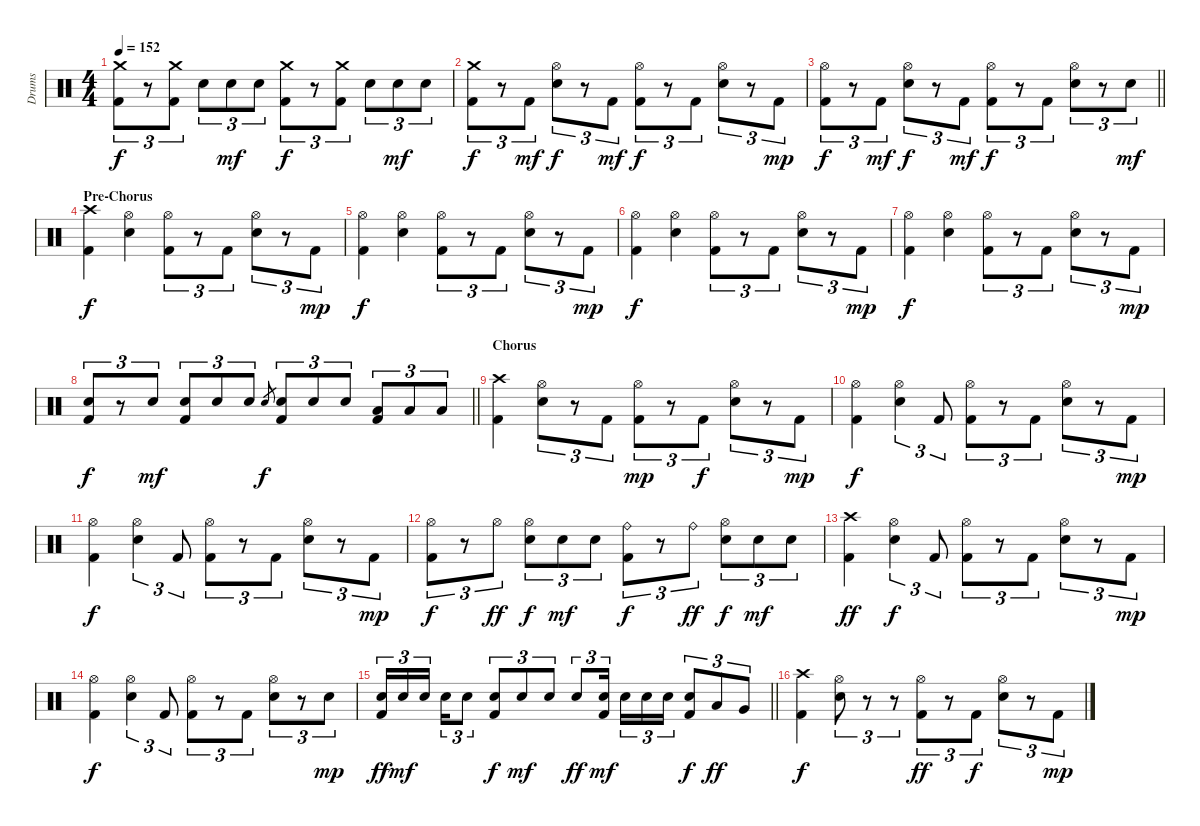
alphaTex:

\track ("Drums" "Drums") {instrument percussion}
\staff {score}
\articulation defaults
\ts (4 4)
\tempo 152
\clef neutral
\ks c
("Crash medium (hit)" "Kick (hit) 2").8{tu (3 2) dy f} r.8{tu (3 2)} ("Crash medium (hit)" "Kick (hit) 2").8{tu (3 2)} "Snare (hit) 2".8{tu (3 2)} "Snare (hit) 2".8{tu (3 2) dy mf} "Snare (hit) 2".8{tu (3 2)} ("Crash medium (hit)" "Kick (hit) 2").8{tu (3 2) dy f} r.8{tu (3 2)} ("Crash medium (hit)" "Kick (hit) 2").8{tu (3 2)} "Snare (hit) 2".8{tu (3 2)} "Snare (hit) 2".8{tu (3 2) dy mf} "Snare (hit) 2".8{tu (3 2)} |
("Crash medium (hit)" "Kick (hit) 2").8{tu (3 2) dy f} r.8{tu (3 2)} "Kick (hit) 2".8{tu (3 2) dy mf} ("Hi-Hat (open)" "Snare (hit) 2").8{tu (3 2) dy f} r.8{tu (3 2)} "Kick (hit) 2".8{tu (3 2) dy mf} ("Hi-Hat (open)" "Kick (hit) 2").8{tu (3 2) dy f} r.8{tu (3 2)} "Kick (hit) 2".8{tu (3 2)} ("Hi-Hat (open)" "Snare (hit) 2").8{tu (3 2)} r.8{tu (3 2)} "Kick (hit) 2".8{tu (3 2) dy mp} |
\barLineRight lightlight
("Hi-Hat (open)" "Kick (hit) 2").8{tu (3 2) dy f} r.8{tu (3 2)} "Kick (hit) 2".8{tu (3 2) dy mf} ("Hi-Hat (open)" "Snare (hit) 2").8{tu (3 2) dy f} r.8{tu (3 2)} "Kick (hit) 2".8{tu (3 2) dy mf} ("Hi-Hat (open)" "Kick (hit) 2").8{tu (3 2) dy f} r.8{tu (3 2)} "Kick (hit) 2".8{tu (3 2)} ("Hi-Hat (open)" "Snare (hit) 2").8{tu (3 2)} r.8{tu (3 2)} "Snare (hit) 2".8{tu (3 2) dy mf} |
\section ("" "Pre-Chorus")
("Crash high (hit)" "Kick (hit) 2").4{dy f} ("Hi-Hat (open)" "Snare (hit) 2").4 ("Hi-Hat (open)" "Kick (hit) 2").8{tu (3 2)} r.8{tu (3 2)} "Kick (hit) 2".8{tu (3 2)} ("Hi-Hat (open)" "Snare (hit) 2").8{tu (3 2)} r.8{tu (3 2)} "Kick (hit) 2".8{tu (3 2) dy mp} |
("Hi-Hat (open)" "Kick (hit) 2").4{dy f} ("Hi-Hat (open)" "Snare (hit) 2").4 ("Hi-Hat (open)" "Kick (hit) 2").8{tu (3 2)} r.8{tu (3 2)} "Kick (hit) 2".8{tu (3 2)} ("Hi-Hat (open)" "Snare (hit) 2").8{tu (3 2)} r.8{tu (3 2)} "Kick (hit) 2".8{tu (3 2) dy mp} |
("Hi-Hat (open)" "Kick (hit) 2").4{dy f} ("Hi-Hat (open)" "Snare (hit) 2").4 ("Hi-Hat (open)" "Kick (hit) 2").8{tu (3 2)} r.8{tu (3 2)} "Kick (hit) 2".8{tu (3 2)} ("Hi-Hat (open)" "Snare (hit) 2").8{tu (3 2)} r.8{tu (3 2)} "Kick (hit) 2".8{tu (3 2) dy mp} |
("Hi-Hat (open)" "Kick (hit) 2").4{dy f} ("Hi-Hat (open)" "Snare (hit) 2").4 ("Hi-Hat (open)" "Kick (hit) 2").8{tu (3 2)} r.8{tu (3 2)} "Kick (hit) 2".8{tu (3 2)} ("Hi-Hat (open)" "Snare (hit) 2").8{tu (3 2)} r.8{tu (3 2)} "Kick (hit) 2".8{tu (3 2) dy mp} |
\barLineRight lightlight
("Kick (hit) 2" "Snare (hit) 2").8{tu (3 2) dy f} r.8{tu (3 2)} "Snare (hit) 2".8{tu (3 2) dy mf} ("Kick (hit) 2" "Snare (hit) 2").8{tu (3 2)} "Snare (hit) 2".8{tu (3 2)} "Snare (hit) 2".8{tu (3 2)} "Snare (hit) 2".8{gr dy f} ("Kick (hit) 2" "Snare (hit) 2").8{tu (3 2)} "Snare (hit) 2".8{tu (3 2)} "Snare (hit) 2".8{tu (3 2)} ("Kick (hit) 2" "Low Tom (hit)").8{tu (3 2)} "Low Tom (hit)".8{tu (3 2)} "Low Tom (hit)".8{tu (3 2)} |
\section ("" "Chorus")
("Crash high (hit)" "Kick (hit) 2").4 ("Hi-Hat (open)" "Snare (hit) 2").8{tu (3 2)} r.8{tu (3 2)} "Kick (hit) 2".8{tu (3 2)} ("Hi-Hat (open)" "Kick (hit) 2").8{tu (3 2) dy mp} r.8{tu (3 2)} "Kick (hit) 2".8{tu (3 2) dy f} ("Hi-Hat (open)" "Snare (hit) 2").8{tu (3 2)} r.8{tu (3 2)} "Kick (hit) 2".8{tu (3 2) dy mp} |
("Hi-Hat (open)" "Kick (hit) 2").4{dy f} ("Hi-Hat (open)" "Snare (hit) 2").4{tu (3 2)} "Kick (hit) 2".8{tu (3 2)} ("Hi-Hat (open)" "Kick (hit) 2").8{tu (3 2)} r.8{tu (3 2)} "Kick (hit) 2".8{tu (3 2)} ("Hi-Hat (open)" "Snare (hit) 2").8{tu (3 2)} r.8{tu (3 2)} "Kick (hit) 2".8{tu (3 2) dy mp} |
("Hi-Hat (open)" "Kick (hit) 2").4{dy f} ("Hi-Hat (open)" "Snare (hit) 2").4{tu (3 2)} "Kick (hit) 2".8{tu (3 2)} ("Hi-Hat (open)" "Kick (hit) 2").8{tu (3 2)} r.8{tu (3 2)} "Kick (hit) 2".8{tu (3 2)} ("Hi-Hat (open)" "Snare (hit) 2").8{tu (3 2)} r.8{tu (3 2)} "Kick (hit) 2".8{tu (3 2) dy mp} |
("Hi-Hat (open)" "Kick (hit) 2").8{tu (3 2) dy f} r.8{tu (3 2)} "Hi-Hat (open)".8{tu (3 2) dy ff} ("Hi-Hat (open)" "Snare (hit) 2").8{tu (3 2) dy f} "Snare (hit) 2".8{tu (3 2) dy mf} "Snare (hit) 2".8{tu (3 2)} ("Ride (bell)" "Kick (hit) 2").8{tu (3 2) dy f} r.8{tu (3 2)} "Ride (bell)".8{tu (3 2) dy ff} ("Hi-Hat (open)" "Snare (hit) 2").8{tu (3 2) dy f} "Snare (hit) 2".8{tu (3 2) dy mf} "Snare (hit) 2".8{tu (3 2)} |
("Crash high (hit)" "Kick (hit) 2").4{dy ff} ("Hi-Hat (open)" "Snare (hit) 2").4{tu (3 2) dy f} "Kick (hit) 2".8{tu (3 2)} ("Hi-Hat (open)" "Kick (hit) 2").8{tu (3 2)} r.8{tu (3 2)} "Kick (hit) 2".8{tu (3 2)} ("Hi-Hat (open)" "Snare (hit) 2").8{tu (3 2)} r.8{tu (3 2)} "Kick (hit) 2".8{tu (3 2) dy mp} |
("Hi-Hat (open)" "Kick (hit) 2").4{dy f} ("Hi-Hat (open)" "Snare (hit) 2").4{tu (3 2)} "Kick (hit) 2".8{tu (3 2)} ("Hi-Hat (open)" "Kick (hit) 2").8{tu (3 2)} r.8{tu (3 2)} "Kick (hit) 2".8{tu (3 2)} ("Hi-Hat (open)" "Snare (hit) 2").8{tu (3 2)} r.8{tu (3 2)} "Snare (hit) 2".8{tu (3 2) dy mp} |
\barLineRight lightlight
("Kick (hit) 2" "Snare (hit) 2").16{tu (3 2) dy ff} "Snare (hit) 2".16{tu (3 2) dy mf} "Snare (hit) 2".16{tu (3 2) beam splitsecondary} "Snare (hit) 2".16{tu (3 2)} "Snare (hit) 2".8{tu (3 2)} ("Kick (hit) 2" "Snare (hit) 2").8{tu (3 2) dy f} "Snare (hit) 2".8{tu (3 2) dy mf} "Snare (hit) 2".8{tu (3 2)} "Snare (hit) 2".8{tu (3 2) dy ff} ("Kick (hit) 2" "Snare (hit) 2").16{tu (3 2) dy mf beam splitsecondary} "Snare (hit) 2".16{tu (3 2)} "Snare (hit) 2".16{tu (3 2)} "Snare (hit) 2".16{tu (3 2)} ("Kick (hit) 2" "Snare (hit) 2").8{tu (3 2) dy f} "Low Tom (hit)".8{tu (3 2) dy ff} "Very Low Tom (hit)".8{tu (3 2)} |
("Crash high (hit)" "Kick (hit) 2").4{dy f} ("Hi-Hat (open)" "Snare (hit) 2").8{tu (3 2)} r.8{tu (3 2)} r.8{tu (3 2)} ("Hi-Hat (open)" "Kick (hit) 2").8{tu (3 2) dy ff} r.8{tu (3 2)} "Kick (hit) 2".8{tu (3 2) dy f} ("Hi-Hat (open)" "Snare (hit) 2").8{tu (3 2)} r.8{tu (3 2)} "Kick (hit) 2".8{tu (3 2) dy mp}
